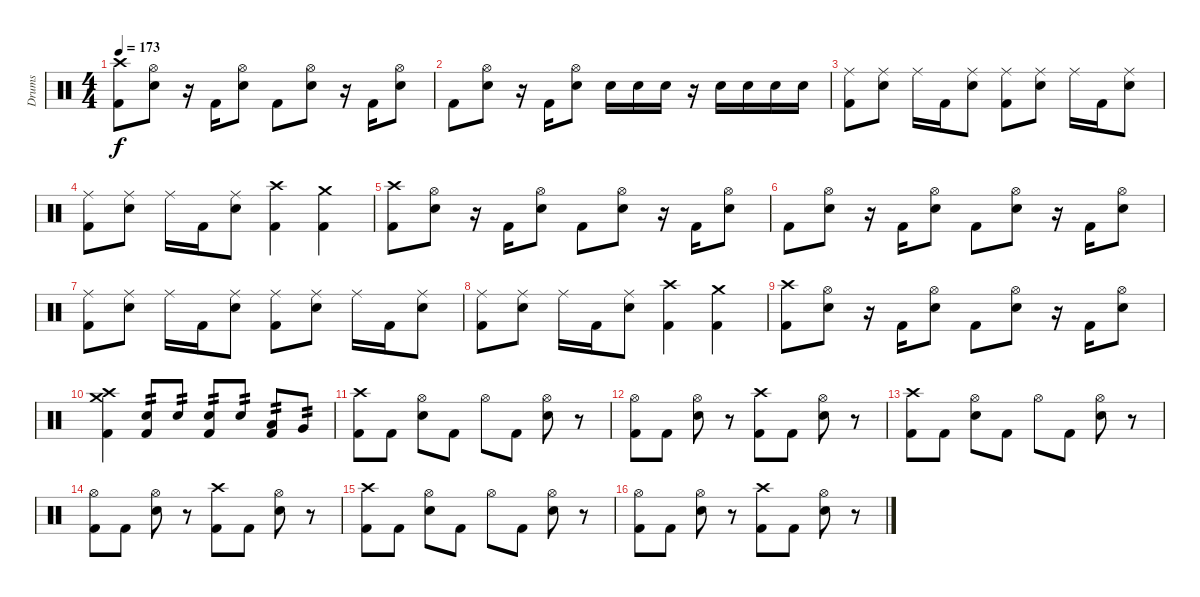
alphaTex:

\track ("Drums" "Drums") {instrument percussion}
\staff {score}
\articulation defaults
\ts (4 4)
\tempo 173
\clef neutral
\ks c
("Crash high (hit)" "Kick (hit) 2").8{dy f} ("Hi-Hat (open)" "Electric Snare (hit)").8 r.16 "Kick (hit) 2".16 ("Hi-Hat (open)" "Electric Snare (hit)").8 "Kick (hit) 2".8 ("Hi-Hat (open)" "Electric Snare (hit)").8 r.16 "Kick (hit) 2".16 ("Hi-Hat (open)" "Electric Snare (hit)").8 |
"Kick (hit) 2".8 ("Hi-Hat (open)" "Electric Snare (hit)").8 r.16 "Kick (hit) 2".16 ("Hi-Hat (open)" "Electric Snare (hit)").8 "Electric Snare (hit)".16 "Electric Snare (hit)".16 "Electric Snare (hit)".16 r.16 "Electric Snare (hit)".16 "Electric Snare (hit)".16 "Electric Snare (hit)".16 "Electric Snare (hit)".16 |
("Ride (middle)" "Kick (hit) 2").8 ("Ride (middle)" "Electric Snare (hit)").8 "Ride (middle)".16 "Kick (hit) 2".16 ("Ride (middle)" "Electric Snare (hit)").8 ("Ride (middle)" "Kick (hit) 2").8 ("Ride (middle)" "Electric Snare (hit)").8 "Ride (middle)".16 "Kick (hit) 2".16 ("Ride (middle)" "Electric Snare (hit)").8 |
("Ride (middle)" "Kick (hit) 2").8 ("Ride (middle)" "Electric Snare (hit)").8 "Ride (middle)".16 "Kick (hit) 2".16 ("Ride (middle)" "Electric Snare (hit)").8 ("Crash high (hit)" "Kick (hit) 2").4 ("Crash medium (hit)" "Kick (hit) 2").4 |
("Crash high (hit)" "Kick (hit) 2").8 ("Hi-Hat (open)" "Electric Snare (hit)").8 r.16 "Kick (hit) 2".16 ("Hi-Hat (open)" "Electric Snare (hit)").8 "Kick (hit) 2".8 ("Hi-Hat (open)" "Electric Snare (hit)").8 r.16 "Kick (hit) 2".16 ("Hi-Hat (open)" "Electric Snare (hit)").8 |
"Kick (hit) 2".8 ("Hi-Hat (open)" "Electric Snare (hit)").8 r.16 "Kick (hit) 2".16 ("Hi-Hat (open)" "Electric Snare (hit)").8 "Kick (hit) 2".8 ("Hi-Hat (open)" "Electric Snare (hit)").8 r.16 "Kick (hit) 2".16 ("Hi-Hat (open)" "Electric Snare (hit)").8 |
("Ride (middle)" "Kick (hit) 2").8 ("Ride (middle)" "Electric Snare (hit)").8 "Ride (middle)".16 "Kick (hit) 2".16 ("Ride (middle)" "Electric Snare (hit)").8 ("Ride (middle)" "Kick (hit) 2").8 ("Ride (middle)" "Electric Snare (hit)").8 "Ride (middle)".16 "Kick (hit) 2".16 ("Ride (middle)" "Electric Snare (hit)").8 |
("Ride (middle)" "Kick (hit) 2").8 ("Ride (middle)" "Electric Snare (hit)").8 "Ride (middle)".16 "Kick (hit) 2".16 ("Ride (middle)" "Electric Snare (hit)").8 ("Crash high (hit)" "Kick (hit) 2").4 ("Crash medium (hit)" "Kick (hit) 2").4 |
("Crash high (hit)" "Kick (hit) 2").8 ("Hi-Hat (open)" "Electric Snare (hit)").8 r.16 "Kick (hit) 2".16 ("Hi-Hat (open)" "Electric Snare (hit)").8 "Kick (hit) 2".8 ("Hi-Hat (open)" "Electric Snare (hit)").8 r.16 "Kick (hit) 2".16 ("Hi-Hat (open)" "Electric Snare (hit)").8 |
("Crash high (hit)" "Crash medium (hit)" "Kick (hit) 2").4 ("Electric Snare (hit)" "Kick (hit) 2").8{tp 2} "Electric Snare (hit)".8{tp 2} ("Electric Snare (hit)" "Kick (hit) 2").8{tp 2} "Electric Snare (hit)".8{tp 2} ("Low Tom (hit)" "Kick (hit) 2").8{tp 2} "Very Low Tom (hit)".8{tp 2} |
("Crash high (hit)" "Kick (hit) 2").8 "Kick (hit) 2".8 ("Hi-Hat (open)" "Electric Snare (hit)").8 "Kick (hit) 2".8 "Hi-Hat (open)".8 "Kick (hit) 2".8 ("Hi-Hat (open)" "Electric Snare (hit)").8 r.8 |
("Hi-Hat (open)" "Kick (hit) 2").8 "Kick (hit) 2".8 ("Hi-Hat (open)" "Electric Snare (hit)").8 r.8 ("Crash high (hit)" "Kick (hit) 2").8 "Kick (hit) 2".8 ("Hi-Hat (open)" "Electric Snare (hit)").8 r.8 |
("Crash high (hit)" "Kick (hit) 2").8 "Kick (hit) 2".8 ("Hi-Hat (open)" "Electric Snare (hit)").8 "Kick (hit) 2".8 "Hi-Hat (open)".8 "Kick (hit) 2".8 ("Hi-Hat (open)" "Electric Snare (hit)").8 r.8 |
("Hi-Hat (open)" "Kick (hit) 2").8 "Kick (hit) 2".8 ("Hi-Hat (open)" "Electric Snare (hit)").8 r.8 ("Crash high (hit)" "Kick (hit) 2").8 "Kick (hit) 2".8 ("Hi-Hat (open)" "Electric Snare (hit)").8 r.8 |
("Crash high (hit)" "Kick (hit) 2").8 "Kick (hit) 2".8 ("Hi-Hat (open)" "Electric Snare (hit)").8 "Kick (hit) 2".8 "Hi-Hat (open)".8 "Kick (hit) 2".8 ("Hi-Hat (open)" "Electric Snare (hit)").8 r.8 |
("Hi-Hat (open)" "Kick (hit) 2").8 "Kick (hit) 2".8 ("Hi-Hat (open)" "Electric Snare (hit)").8 r.8 ("Crash high (hit)" "Kick (hit) 2").8 "Kick (hit) 2".8 ("Hi-Hat (open)" "Electric Snare (hit)").8 r.8
